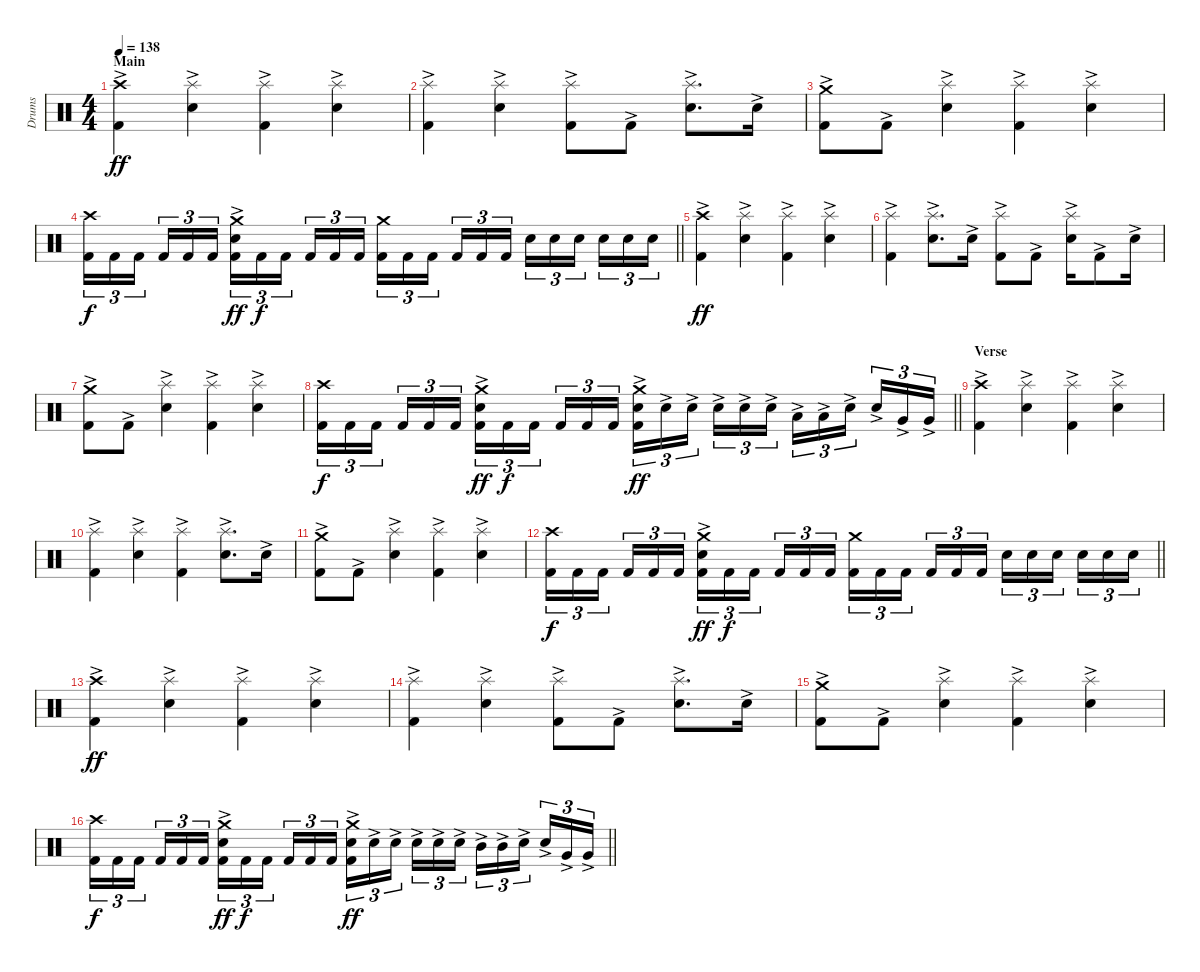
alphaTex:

\track ("Drums" "Drums") {instrument percussion}
\staff {score}
\articulation defaults
\ts (4 4)
\section ("" "Main")
\tempo 138
\clef neutral
\ks c
("Kick (hit) 2"{ac} "Crash high (hit)").4{dy ff} ("Snare (hit) 2"{ac} "Splash (hit)").4 ("Kick (hit) 2"{ac} "Splash (hit)").4 ("Snare (hit) 2"{ac} "Splash (hit)").4 |
("Kick (hit) 2"{ac} "Splash (hit)").4 ("Snare (hit) 2"{ac} "Splash (hit)").4 ("Kick (hit) 2"{ac} "Splash (hit)").8 "Kick (hit) 2"{ac}.8 ("Snare (hit) 2"{ac} "Splash (hit)").8{d} "Snare (hit) 2"{ac}.16 |
("Kick (hit) 2"{ac} "Crash medium (hit)").8 "Kick (hit) 2"{ac}.8 ("Snare (hit) 2"{ac} "Splash (hit)").4 ("Kick (hit) 2"{ac} "Splash (hit)").4 ("Snare (hit) 2"{ac} "Splash (hit)").4 |
\barLineRight lightlight
("Kick (hit) 2" "Crash high (hit)").16{tu (3 2) dy f} "Kick (hit) 2".16{tu (3 2)} "Kick (hit) 2".16{tu (3 2) beam splitsecondary} "Kick (hit) 2".16{tu (3 2)} "Kick (hit) 2".16{tu (3 2)} "Kick (hit) 2".16{tu (3 2)} ("Kick (hit) 2" "Snare (hit) 2"{ac} "Crash medium (hit)").16{tu (3 2) dy ff} "Kick (hit) 2".16{tu (3 2) dy f} "Kick (hit) 2".16{tu (3 2) beam splitsecondary} "Kick (hit) 2".16{tu (3 2)} "Kick (hit) 2".16{tu (3 2)} "Kick (hit) 2".16{tu (3 2)} ("Kick (hit) 2" "Crash medium (hit)").16{tu (3 2)} "Kick (hit) 2".16{tu (3 2)} "Kick (hit) 2".16{tu (3 2) beam splitsecondary} "Kick (hit) 2".16{tu (3 2)} "Kick (hit) 2".16{tu (3 2)} "Kick (hit) 2".16{tu (3 2)} "Snare (hit) 2".16{tu (3 2)} "Snare (hit) 2".16{tu (3 2)} "Snare (hit) 2".16{tu (3 2) beam splitsecondary} "Snare (hit) 2".16{tu (3 2)} "Snare (hit) 2".16{tu (3 2)} "Snare (hit) 2".16{tu (3 2)} |
\section ("" "")
("Kick (hit) 2"{ac} "Crash high (hit)").4{dy ff} ("Snare (hit) 2"{ac} "Splash (hit)").4 ("Kick (hit) 2"{ac} "Splash (hit)").4 ("Snare (hit) 2"{ac} "Splash (hit)").4 |
("Kick (hit) 2"{ac} "Splash (hit)").4 ("Snare (hit) 2"{ac} "Splash (hit)").8{d} "Snare (hit) 2"{ac}.16 ("Kick (hit) 2"{ac} "Splash (hit)").8 "Kick (hit) 2"{ac}.8 ("Snare (hit) 2"{ac} "Splash (hit)").16 "Kick (hit) 2"{ac}.8 "Snare (hit) 2"{ac}.16 |
("Kick (hit) 2"{ac} "Crash medium (hit)").8 "Kick (hit) 2"{ac}.8 ("Snare (hit) 2"{ac} "Splash (hit)").4 ("Kick (hit) 2"{ac} "Splash (hit)").4 ("Snare (hit) 2"{ac} "Splash (hit)").4 |
\barLineRight lightlight
("Kick (hit) 2" "Crash high (hit)").16{tu (3 2) dy f} "Kick (hit) 2".16{tu (3 2)} "Kick (hit) 2".16{tu (3 2) beam splitsecondary} "Kick (hit) 2".16{tu (3 2)} "Kick (hit) 2".16{tu (3 2)} "Kick (hit) 2".16{tu (3 2)} ("Kick (hit) 2" "Snare (hit) 2"{ac} "Crash medium (hit)").16{tu (3 2) dy ff} "Kick (hit) 2".16{tu (3 2) dy f} "Kick (hit) 2".16{tu (3 2) beam splitsecondary} "Kick (hit) 2".16{tu (3 2)} "Kick (hit) 2".16{tu (3 2)} "Kick (hit) 2".16{tu (3 2)} ("Kick (hit) 2" "Snare (hit) 2"{ac} "Crash medium (hit)").16{tu (3 2) dy ff} "Snare (hit) 2"{ac}.16{tu (3 2)} "Snare (hit) 2"{ac}.16{tu (3 2) beam splitsecondary} "Snare (hit) 2"{ac}.16{tu (3 2)} "Snare (hit) 2"{ac}.16{tu (3 2)} "Snare (hit) 2"{ac}.16{tu (3 2)} "Low Tom (hit)"{ac}.16{tu (3 2)} "Low Tom (hit)"{ac}.16{tu (3 2)} "Snare (hit) 2"{ac}.16{tu (3 2) beam splitsecondary} "Snare (hit) 2"{ac}.16{tu (3 2)} "Very Low Tom (hit)"{ac}.16{tu (3 2)} "Very Low Tom (hit)"{ac}.16{tu (3 2)} |
\section ("" "Verse")
("Kick (hit) 2"{ac} "Crash high (hit)").4 ("Snare (hit) 2"{ac} "Splash (hit)").4 ("Kick (hit) 2"{ac} "Splash (hit)").4 ("Snare (hit) 2"{ac} "Splash (hit)").4 |
("Kick (hit) 2"{ac} "Splash (hit)").4 ("Snare (hit) 2"{ac} "Splash (hit)").4 ("Kick (hit) 2"{ac} "Splash (hit)").4 ("Snare (hit) 2"{ac} "Splash (hit)").8{d} "Snare (hit) 2"{ac}.16 |
("Kick (hit) 2"{ac} "Crash medium (hit)").8 "Kick (hit) 2"{ac}.8 ("Snare (hit) 2"{ac} "Splash (hit)").4 ("Kick (hit) 2"{ac} "Splash (hit)").4 ("Snare (hit) 2"{ac} "Splash (hit)").4 |
\barLineRight lightlight
("Kick (hit) 2" "Crash high (hit)").16{tu (3 2) dy f} "Kick (hit) 2".16{tu (3 2)} "Kick (hit) 2".16{tu (3 2) beam splitsecondary} "Kick (hit) 2".16{tu (3 2)} "Kick (hit) 2".16{tu (3 2)} "Kick (hit) 2".16{tu (3 2)} ("Kick (hit) 2" "Snare (hit) 2"{ac} "Crash medium (hit)").16{tu (3 2) dy ff} "Kick (hit) 2".16{tu (3 2) dy f} "Kick (hit) 2".16{tu (3 2) beam splitsecondary} "Kick (hit) 2".16{tu (3 2)} "Kick (hit) 2".16{tu (3 2)} "Kick (hit) 2".16{tu (3 2)} ("Kick (hit) 2" "Crash medium (hit)").16{tu (3 2)} "Kick (hit) 2".16{tu (3 2)} "Kick (hit) 2".16{tu (3 2) beam splitsecondary} "Kick (hit) 2".16{tu (3 2)} "Kick (hit) 2".16{tu (3 2)} "Kick (hit) 2".16{tu (3 2)} "Snare (hit) 2".16{tu (3 2)} "Snare (hit) 2".16{tu (3 2)} "Snare (hit) 2".16{tu (3 2) beam splitsecondary} "Snare (hit) 2".16{tu (3 2)} "Snare (hit) 2".16{tu (3 2)} "Snare (hit) 2".16{tu (3 2)} |
\section ("" "")
("Kick (hit) 2"{ac} "Crash high (hit)").4{dy ff} ("Snare (hit) 2"{ac} "Splash (hit)").4 ("Kick (hit) 2"{ac} "Splash (hit)").4 ("Snare (hit) 2"{ac} "Splash (hit)").4 |
("Kick (hit) 2"{ac} "Splash (hit)").4 ("Snare (hit) 2"{ac} "Splash (hit)").4 ("Kick (hit) 2"{ac} "Splash (hit)").8 "Kick (hit) 2"{ac}.8 ("Snare (hit) 2"{ac} "Splash (hit)").8{d} "Snare (hit) 2"{ac}.16 |
("Kick (hit) 2"{ac} "Crash medium (hit)").8 "Kick (hit) 2"{ac}.8 ("Snare (hit) 2"{ac} "Splash (hit)").4 ("Kick (hit) 2"{ac} "Splash (hit)").4 ("Snare (hit) 2"{ac} "Splash (hit)").4 |
\barLineRight lightlight
("Kick (hit) 2" "Crash high (hit)").16{tu (3 2) dy f} "Kick (hit) 2".16{tu (3 2)} "Kick (hit) 2".16{tu (3 2) beam splitsecondary} "Kick (hit) 2".16{tu (3 2)} "Kick (hit) 2".16{tu (3 2)} "Kick (hit) 2".16{tu (3 2)} ("Kick (hit) 2" "Snare (hit) 2"{ac} "Crash medium (hit)").16{tu (3 2) dy ff} "Kick (hit) 2".16{tu (3 2) dy f} "Kick (hit) 2".16{tu (3 2) beam splitsecondary} "Kick (hit) 2".16{tu (3 2)} "Kick (hit) 2".16{tu (3 2)} "Kick (hit) 2".16{tu (3 2)} ("Kick (hit) 2" "Snare (hit) 2"{ac} "Crash medium (hit)").16{tu (3 2) dy ff} "Snare (hit) 2"{ac}.16{tu (3 2)} "Snare (hit) 2"{ac}.16{tu (3 2) beam splitsecondary} "Snare (hit) 2"{ac}.16{tu (3 2)} "Snare (hit) 2"{ac}.16{tu (3 2)} "Snare (hit) 2"{ac}.16{tu (3 2)} "Mid Tom (hit)"{ac}.16{tu (3 2)} "Mid Tom (hit)"{ac}.16{tu (3 2)} "Snare (hit) 2"{ac}.16{tu (3 2) beam splitsecondary} "Snare (hit) 2"{ac}.16{tu (3 2)} "Very Low Tom (hit)"{ac}.16{tu (3 2)} "Very Low Tom (hit)"{ac}.16{tu (3 2)}
